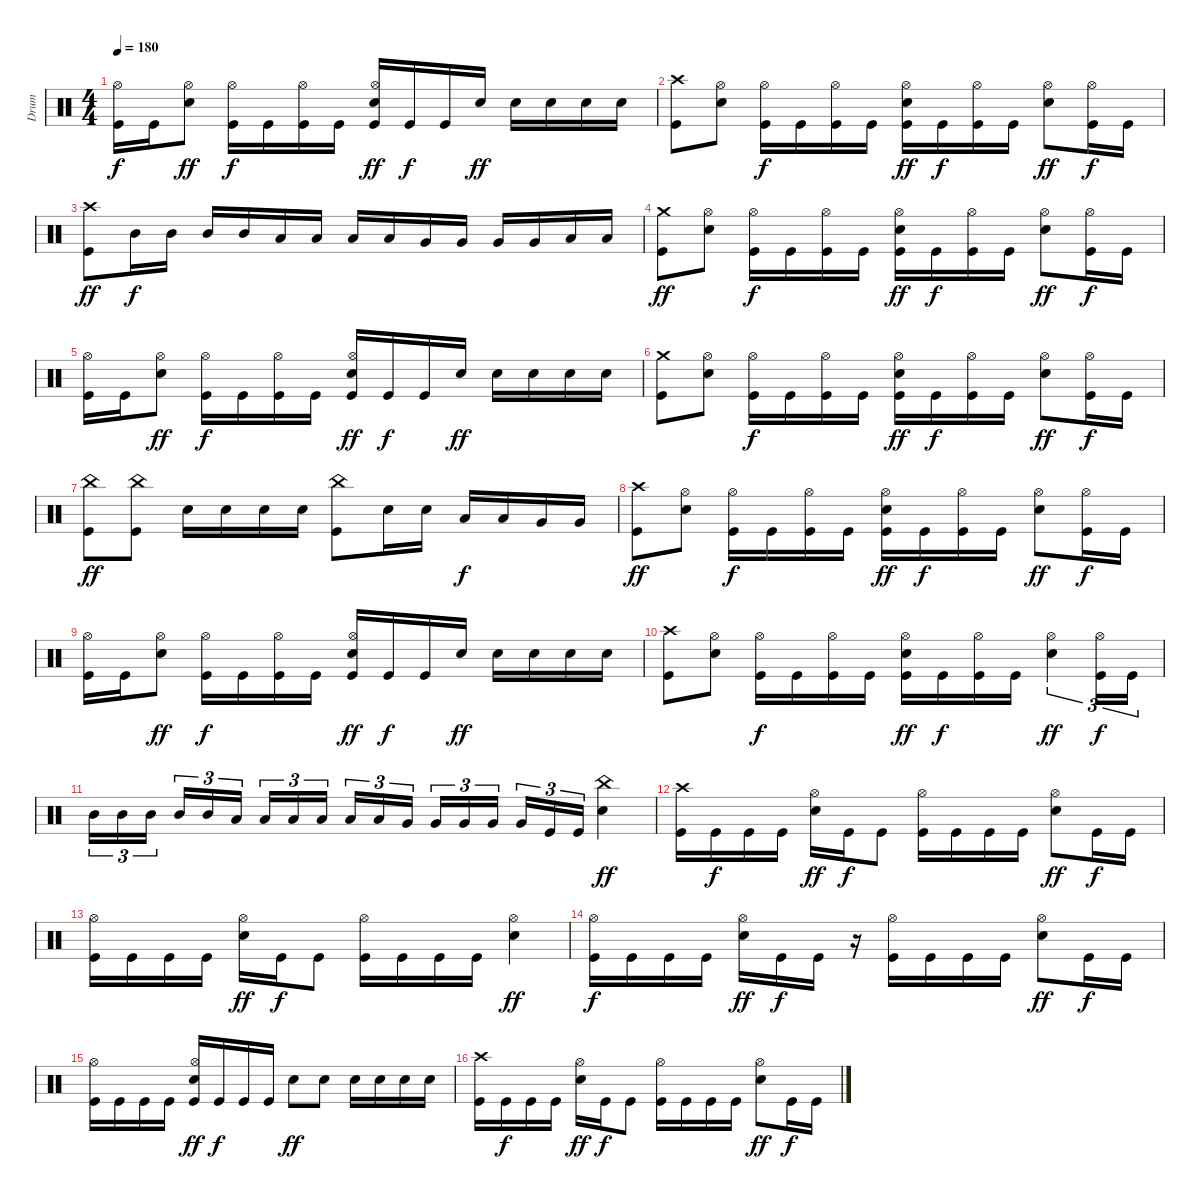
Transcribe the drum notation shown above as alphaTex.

\track ("Drum" "Drum") {instrument percussion}
\staff {score}
\articulation defaults
\ts (4 4)
\tempo 180
\clef neutral
\ks c
("Kick (hit)" "Hi-Hat (open)").16{dy f} "Kick (hit)".16 ("Electric Snare (hit)" "Hi-Hat (open)").8{dy ff} ("Kick (hit)" "Hi-Hat (open)").16{dy f} "Kick (hit)".16 ("Kick (hit)" "Hi-Hat (open)").16 "Kick (hit)".16 ("Kick (hit)" "Electric Snare (hit)" "Hi-Hat (open)").16{dy ff} "Kick (hit)".16{dy f} "Kick (hit)".16 "Electric Snare (hit)".16{dy ff} "Electric Snare (hit)".16 "Electric Snare (hit)".16 "Electric Snare (hit)".16 "Electric Snare (hit)".16 |
("Kick (hit)" "Crash high (hit)").8 ("Electric Snare (hit)" "Hi-Hat (open)").8 ("Kick (hit)" "Hi-Hat (open)").16{dy f} "Kick (hit)".16 ("Kick (hit)" "Hi-Hat (open)").16 "Kick (hit)".16 ("Kick (hit)" "Electric Snare (hit)" "Hi-Hat (open)").16{dy ff} "Kick (hit)".16{dy f} ("Kick (hit)" "Hi-Hat (open)").16 "Kick (hit)".16 ("Electric Snare (hit)" "Hi-Hat (open)").8{dy ff} ("Kick (hit)" "Hi-Hat (open)").16{dy f} "Kick (hit)".16 |
("Kick (hit)" "Crash high (hit)").8{dy ff} "Mid Tom (hit)".16{dy f} "Mid Tom (hit)".16 "Mid Tom (hit)".16 "Mid Tom (hit)".16 "Low Tom (hit)".16 "Low Tom (hit)".16 "Low Tom (hit)".16 "Low Tom (hit)".16 "Very Low Tom (hit)".16 "Very Low Tom (hit)".16 "Very Low Tom (hit)".16 "Very Low Tom (hit)".16 "Low Floor Tom (hit)".16 "Low Floor Tom (hit)".16 |
("Kick (hit)" "Crash medium (hit)").8{dy ff} ("Electric Snare (hit)" "Hi-Hat (open)").8 ("Kick (hit)" "Hi-Hat (open)").16{dy f} "Kick (hit)".16 ("Kick (hit)" "Hi-Hat (open)").16 "Kick (hit)".16 ("Kick (hit)" "Electric Snare (hit)" "Hi-Hat (open)").16{dy ff} "Kick (hit)".16{dy f} ("Kick (hit)" "Hi-Hat (open)").16 "Kick (hit)".16 ("Electric Snare (hit)" "Hi-Hat (open)").8{dy ff} ("Kick (hit)" "Hi-Hat (open)").16{dy f} "Kick (hit)".16 |
("Kick (hit)" "Hi-Hat (open)").16 "Kick (hit)".16 ("Electric Snare (hit)" "Hi-Hat (open)").8{dy ff} ("Kick (hit)" "Hi-Hat (open)").16{dy f} "Kick (hit)".16 ("Kick (hit)" "Hi-Hat (open)").16 "Kick (hit)".16 ("Kick (hit)" "Electric Snare (hit)" "Hi-Hat (open)").16{dy ff} "Kick (hit)".16{dy f} "Kick (hit)".16 "Electric Snare (hit)".16{dy ff} "Electric Snare (hit)".16 "Electric Snare (hit)".16 "Electric Snare (hit)".16 "Electric Snare (hit)".16 |
("Kick (hit)" "Crash medium (hit)").8 ("Electric Snare (hit)" "Hi-Hat (open)").8 ("Kick (hit)" "Hi-Hat (open)").16{dy f} "Kick (hit)".16 ("Kick (hit)" "Hi-Hat (open)").16 "Kick (hit)".16 ("Kick (hit)" "Electric Snare (hit)" "Hi-Hat (open)").16{dy ff} "Kick (hit)".16{dy f} ("Kick (hit)" "Hi-Hat (open)").16 "Kick (hit)".16 ("Electric Snare (hit)" "Hi-Hat (open)").8{dy ff} ("Kick (hit)" "Hi-Hat (open)").16{dy f} "Kick (hit)".16 |
("Kick (hit)" "China (hit)").8{dy ff} ("Kick (hit)" "China (hit)").8 "Electric Snare (hit)".16 "Electric Snare (hit)".16 "Electric Snare (hit)".16 "Electric Snare (hit)".16 ("Kick (hit)" "China (hit)").8 "Electric Snare (hit)".16 "Electric Snare (hit)".16 "Low Tom (hit)".16{dy f} "Low Tom (hit)".16 "Very Low Tom (hit)".16 "Very Low Tom (hit)".16 |
("Kick (hit)" "Crash high (hit)").8{dy ff} ("Electric Snare (hit)" "Hi-Hat (open)").8 ("Kick (hit)" "Hi-Hat (open)").16{dy f} "Kick (hit)".16 ("Kick (hit)" "Hi-Hat (open)").16 "Kick (hit)".16 ("Kick (hit)" "Electric Snare (hit)" "Hi-Hat (open)").16{dy ff} "Kick (hit)".16{dy f} ("Kick (hit)" "Hi-Hat (open)").16 "Kick (hit)".16 ("Electric Snare (hit)" "Hi-Hat (open)").8{dy ff} ("Kick (hit)" "Hi-Hat (open)").16{dy f} "Kick (hit)".16 |
("Kick (hit)" "Hi-Hat (open)").16 "Kick (hit)".16 ("Electric Snare (hit)" "Hi-Hat (open)").8{dy ff} ("Kick (hit)" "Hi-Hat (open)").16{dy f} "Kick (hit)".16 ("Kick (hit)" "Hi-Hat (open)").16 "Kick (hit)".16 ("Kick (hit)" "Electric Snare (hit)" "Hi-Hat (open)").16{dy ff} "Kick (hit)".16{dy f} "Kick (hit)".16 "Electric Snare (hit)".16{dy ff} "Electric Snare (hit)".16 "Electric Snare (hit)".16 "Electric Snare (hit)".16 "Electric Snare (hit)".16 |
("Kick (hit)" "Crash high (hit)").8 ("Electric Snare (hit)" "Hi-Hat (open)").8 ("Kick (hit)" "Hi-Hat (open)").16{dy f} "Kick (hit)".16 ("Kick (hit)" "Hi-Hat (open)").16 "Kick (hit)".16 ("Kick (hit)" "Electric Snare (hit)" "Hi-Hat (open)").16{dy ff} "Kick (hit)".16{dy f} ("Kick (hit)" "Hi-Hat (open)").16 "Kick (hit)".16 ("Electric Snare (hit)" "Hi-Hat (open)").4{tu (3 2) dy ff} ("Kick (hit)" "Hi-Hat (open)").16{tu (3 2) dy f} "Kick (hit)".16{tu (3 2)} |
"Mid Tom (hit)".16{tu (3 2)} "Mid Tom (hit)".16{tu (3 2)} "Mid Tom (hit)".16{tu (3 2)} "Mid Tom (hit)".16{tu (3 2)} "Mid Tom (hit)".16{tu (3 2)} "Low Tom (hit)".16{tu (3 2)} "Low Tom (hit)".16{tu (3 2)} "Low Tom (hit)".16{tu (3 2)} "Low Tom (hit)".16{tu (3 2)} "Low Tom (hit)".16{tu (3 2)} "Low Tom (hit)".16{tu (3 2)} "Very Low Tom (hit)".16{tu (3 2)} "Very Low Tom (hit)".16{tu (3 2)} "Very Low Tom (hit)".16{tu (3 2)} "Very Low Tom (hit)".16{tu (3 2)} "Very Low Tom (hit)".16{tu (3 2)} "Kick (hit)".16{tu (3 2)} "Kick (hit)".16{tu (3 2)} ("Electric Snare (hit)" "China (hit)").4{dy ff} |
("Kick (hit)" "Crash high (hit)").16 "Kick (hit)".16{dy f} "Kick (hit)".16 "Kick (hit)".16 ("Electric Snare (hit)" "Hi-Hat (open)").16{dy ff} "Kick (hit)".16{dy f} "Kick (hit)".8 ("Kick (hit)" "Hi-Hat (open)").16 "Kick (hit)".16 "Kick (hit)".16 "Kick (hit)".16 ("Electric Snare (hit)" "Hi-Hat (open)").8{dy ff} "Kick (hit)".16{dy f} "Kick (hit)".16 |
("Kick (hit)" "Hi-Hat (open)").16 "Kick (hit)".16 "Kick (hit)".16 "Kick (hit)".16 ("Electric Snare (hit)" "Hi-Hat (open)").16{dy ff} "Kick (hit)".16{dy f} "Kick (hit)".8 ("Kick (hit)" "Hi-Hat (open)").16 "Kick (hit)".16 "Kick (hit)".16 "Kick (hit)".16 ("Electric Snare (hit)" "Hi-Hat (open)").4{dy ff} |
("Kick (hit)" "Hi-Hat (open)").16{dy f} "Kick (hit)".16 "Kick (hit)".16 "Kick (hit)".16 ("Electric Snare (hit)" "Hi-Hat (open)").16{dy ff} "Kick (hit)".16{dy f} "Kick (hit)".16 r.16 ("Kick (hit)" "Hi-Hat (open)").16 "Kick (hit)".16 "Kick (hit)".16 "Kick (hit)".16 ("Electric Snare (hit)" "Hi-Hat (open)").8{dy ff} "Kick (hit)".16{dy f} "Kick (hit)".16 |
("Kick (hit)" "Hi-Hat (open)").16 "Kick (hit)".16 "Kick (hit)".16 "Kick (hit)".16 ("Kick (hit)" "Electric Snare (hit)" "Hi-Hat (open)").16{dy ff} "Kick (hit)".16{dy f} "Kick (hit)".16 "Kick (hit)".16 "Electric Snare (hit)".8{dy ff} "Electric Snare (hit)".8 "Electric Snare (hit)".16 "Electric Snare (hit)".16 "Electric Snare (hit)".16 "Electric Snare (hit)".16 |
("Kick (hit)" "Crash high (hit)").16 "Kick (hit)".16{dy f} "Kick (hit)".16 "Kick (hit)".16 ("Electric Snare (hit)" "Hi-Hat (open)").16{dy ff} "Kick (hit)".16{dy f} "Kick (hit)".8 ("Kick (hit)" "Hi-Hat (open)").16 "Kick (hit)".16 "Kick (hit)".16 "Kick (hit)".16 ("Electric Snare (hit)" "Hi-Hat (open)").8{dy ff} "Kick (hit)".16{dy f} "Kick (hit)".16
